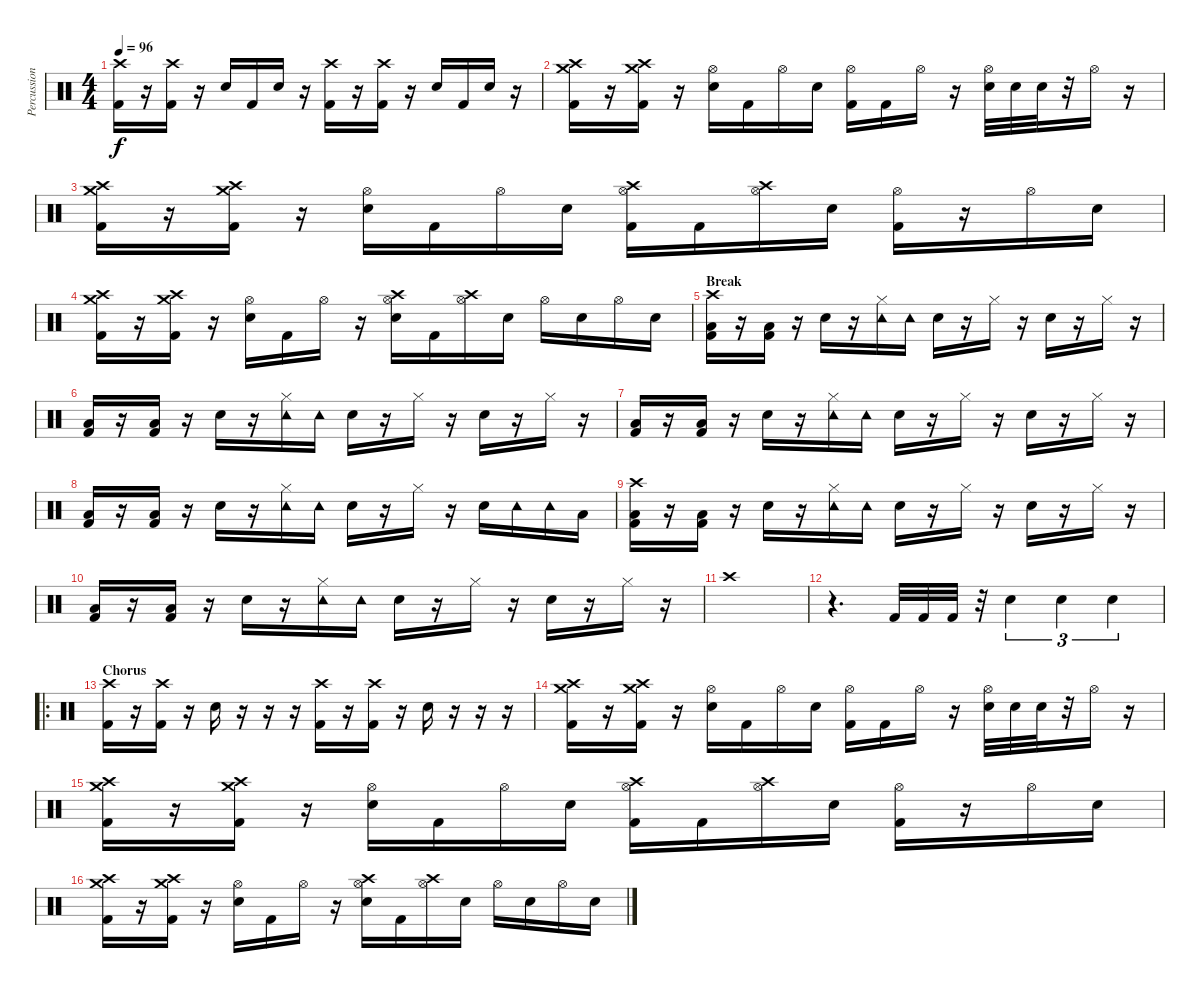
\track ("Percussions" "Percussion") {instrument percussion}
\staff {score}
\articulation defaults
\ts (4 4)
\tempo 96
\clef neutral
\ks c
("Crash high (hit)" "Kick (hit) 2").16{dy f} r.16 ("Crash high (hit)" "Kick (hit) 2").16 r.16 "Snare (hit) 2".16 "Kick (hit) 2".16 "Snare (hit) 2".16 r.16 ("Crash high (hit)" "Kick (hit) 2").16 r.16 ("Crash high (hit)" "Kick (hit) 2").16 r.16 "Snare (hit) 2".16 "Kick (hit) 2".16 "Snare (hit) 2".16 r.16 |
("Crash high (hit)" "Crash medium (hit)" "Kick (hit) 2").16 r.16 ("Crash high (hit)" "Crash medium (hit)" "Kick (hit) 2").16 r.16 ("Hi-Hat (open)" "Snare (hit) 2").16 "Kick (hit) 2".16 "Hi-Hat (open)".16 "Snare (hit) 2".16 ("Hi-Hat (open)" "Kick (hit) 2").16 "Kick (hit) 2".16 "Hi-Hat (open)".16 r.16 ("Hi-Hat (open)" "Snare (hit) 2").32 "Snare (hit) 2".32 "Snare (hit) 2".32 r.32 "Hi-Hat (open)".16 r.16 |
("Crash high (hit)" "Crash medium (hit)" "Kick (hit) 2").16 r.16 ("Crash high (hit)" "Crash medium (hit)" "Kick (hit) 2").16 r.16 ("Hi-Hat (open)" "Snare (hit) 2").16 "Kick (hit) 2".16 "Hi-Hat (open)".16 "Snare (hit) 2".16 ("Crash high (hit)" "Hi-Hat (open)" "Kick (hit) 2").16 "Kick (hit) 2".16 ("Crash high (hit)" "Hi-Hat (open)").16 "Snare (hit) 2".16 ("Hi-Hat (open)" "Kick (hit) 2").16 r.16 "Hi-Hat (open)".16 "Snare (hit) 2".16 |
("Crash high (hit)" "Crash medium (hit)" "Kick (hit) 2").16 r.16 ("Crash high (hit)" "Crash medium (hit)" "Kick (hit) 2").16 r.16 ("Hi-Hat (open)" "Snare (hit) 2").16 "Kick (hit) 2".16 "Hi-Hat (open)".16 r.16 ("Crash high (hit)" "Hi-Hat (open)" "Snare (hit) 2").16 "Kick (hit) 2".16 ("Crash high (hit)" "Hi-Hat (open)").16 "Snare (hit) 2".16 "Hi-Hat (open)".16 "Snare (hit) 2".16 "Hi-Hat (open)".16 "Snare (hit) 2".16 |
\section ("" "Break")
("Crash high (hit)" "Low Floor Tom (hit)" "Kick (hit) 2").16 r.16 ("Low Floor Tom (hit)" "Kick (hit) 2").16 r.16 "Snare (hit) 2".16 r.16 ("Hi-Hat (closed)" "Tambourine (hit)").16 "Tambourine (hit)".16 "Snare (hit) 2".16 r.16 "Hi-Hat (closed)".16 r.16 "Snare (hit) 2".16 r.16 "Hi-Hat (closed)".16 r.16 |
("Low Floor Tom (hit)" "Kick (hit) 2").16 r.16 ("Low Floor Tom (hit)" "Kick (hit) 2").16 r.16 "Snare (hit) 2".16 r.16 ("Hi-Hat (closed)" "Tambourine (hit)").16 "Tambourine (hit)".16 "Snare (hit) 2".16 r.16 "Hi-Hat (closed)".16 r.16 "Snare (hit) 2".16 r.16 "Hi-Hat (closed)".16 r.16 |
("Low Floor Tom (hit)" "Kick (hit) 2").16 r.16 ("Low Floor Tom (hit)" "Kick (hit) 2").16 r.16 "Snare (hit) 2".16 r.16 ("Hi-Hat (closed)" "Tambourine (hit)").16 "Tambourine (hit)".16 "Snare (hit) 2".16 r.16 "Hi-Hat (closed)".16 r.16 "Snare (hit) 2".16 r.16 "Hi-Hat (closed)".16 r.16 |
("Low Floor Tom (hit)" "Kick (hit) 2").16 r.16 ("Low Floor Tom (hit)" "Kick (hit) 2").16 r.16 "Snare (hit) 2".16 r.16 ("Hi-Hat (closed)" "Tambourine (hit)").16 "Tambourine (hit)".16 "Snare (hit) 2".16 r.16 "Hi-Hat (closed)".16 r.16 "Snare (hit) 2".16 "Tambourine (hit)".16 "Tambourine (hit)".16 "Low Floor Tom (hit)".16 |
("Crash high (hit)" "Low Floor Tom (hit)" "Kick (hit) 2").16 r.16 ("Low Floor Tom (hit)" "Kick (hit) 2").16 r.16 "Snare (hit) 2".16 r.16 ("Hi-Hat (closed)" "Tambourine (hit)").16 "Tambourine (hit)".16 "Snare (hit) 2".16 r.16 "Hi-Hat (closed)".16 r.16 "Snare (hit) 2".16 r.16 "Hi-Hat (closed)".16 r.16 |
("Low Floor Tom (hit)" "Kick (hit) 2").16 r.16 ("Low Floor Tom (hit)" "Kick (hit) 2").16 r.16 "Snare (hit) 2".16 r.16 ("Hi-Hat (closed)" "Tambourine (hit)").16 "Tambourine (hit)".16 "Snare (hit) 2".16 r.16 "Hi-Hat (closed)".16 r.16 "Snare (hit) 2".16 r.16 "Hi-Hat (closed)".16 r.16 |
"Crash high (hit)".1 |
r.4{d} "Kick (hit) 2".32 "Kick (hit) 2".32 "Kick (hit) 2".32 r.32 "Snare (hit) 2".4{tu (3 2)} "Snare (hit) 2".4{tu (3 2)} "Snare (hit) 2".4{tu (3 2)} |
\ro
\section ("" "Chorus")
("Crash high (hit)" "Kick (hit) 2").16 r.16 ("Crash high (hit)" "Kick (hit) 2").16 r.16 "Snare (hit) 2".16 r.16 r.16 r.16 ("Crash high (hit)" "Kick (hit) 2").16 r.16 ("Crash high (hit)" "Kick (hit) 2").16 r.16 "Snare (hit) 2".16 r.16 r.16 r.16 |
("Crash high (hit)" "Crash medium (hit)" "Kick (hit) 2").16 r.16 ("Crash high (hit)" "Crash medium (hit)" "Kick (hit) 2").16 r.16 ("Hi-Hat (open)" "Snare (hit) 2").16 "Kick (hit) 2".16 "Hi-Hat (open)".16 "Snare (hit) 2".16 ("Hi-Hat (open)" "Kick (hit) 2").16 "Kick (hit) 2".16 "Hi-Hat (open)".16 r.16 ("Hi-Hat (open)" "Snare (hit) 2").32 "Snare (hit) 2".32 "Snare (hit) 2".32 r.32 "Hi-Hat (open)".16 r.16 |
("Crash high (hit)" "Crash medium (hit)" "Kick (hit) 2").16 r.16 ("Crash high (hit)" "Crash medium (hit)" "Kick (hit) 2").16 r.16 ("Hi-Hat (open)" "Snare (hit) 2").16 "Kick (hit) 2".16 "Hi-Hat (open)".16 "Snare (hit) 2".16 ("Crash high (hit)" "Hi-Hat (open)" "Kick (hit) 2").16 "Kick (hit) 2".16 ("Crash high (hit)" "Hi-Hat (open)").16 "Snare (hit) 2".16 ("Hi-Hat (open)" "Kick (hit) 2").16 r.16 "Hi-Hat (open)".16 "Snare (hit) 2".16 |
("Crash high (hit)" "Crash medium (hit)" "Kick (hit) 2").16 r.16 ("Crash high (hit)" "Crash medium (hit)" "Kick (hit) 2").16 r.16 ("Hi-Hat (open)" "Snare (hit) 2").16 "Kick (hit) 2".16 "Hi-Hat (open)".16 r.16 ("Crash high (hit)" "Hi-Hat (open)" "Snare (hit) 2").16 "Kick (hit) 2".16 ("Crash high (hit)" "Hi-Hat (open)").16 "Snare (hit) 2".16 "Hi-Hat (open)".16 "Snare (hit) 2".16 "Hi-Hat (open)".16 "Snare (hit) 2".16
